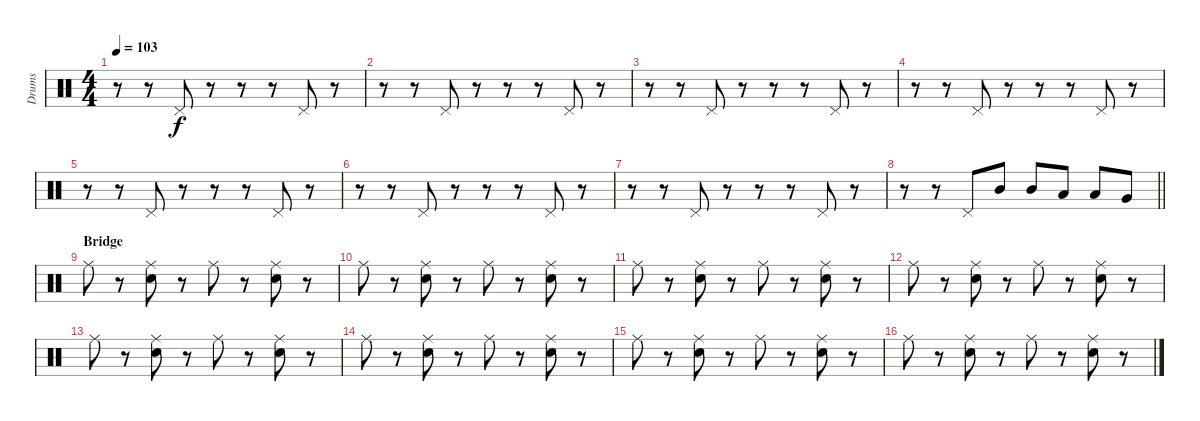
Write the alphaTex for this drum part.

\track ("Drums" "Drums") {instrument percussion}
\staff {score}
\articulation defaults
\ts (4 4)
\tempo 103
\clef neutral
\ks c
r.8{dy f} r.8 "Pedal Hi-Hat (hit)".8 r.8 r.8 r.8 "Pedal Hi-Hat (hit)".8 r.8 |
r.8 r.8 "Pedal Hi-Hat (hit)".8 r.8 r.8 r.8 "Pedal Hi-Hat (hit)".8 r.8 |
r.8 r.8 "Pedal Hi-Hat (hit)".8 r.8 r.8 r.8 "Pedal Hi-Hat (hit)".8 r.8 |
r.8 r.8 "Pedal Hi-Hat (hit)".8 r.8 r.8 r.8 "Pedal Hi-Hat (hit)".8 r.8 |
r.8 r.8 "Pedal Hi-Hat (hit)".8 r.8 r.8 r.8 "Pedal Hi-Hat (hit)".8 r.8 |
r.8 r.8 "Pedal Hi-Hat (hit)".8 r.8 r.8 r.8 "Pedal Hi-Hat (hit)".8 r.8 |
r.8 r.8 "Pedal Hi-Hat (hit)".8 r.8 r.8 r.8 "Pedal Hi-Hat (hit)".8 r.8 |
\barLineRight lightlight
r.8 r.8 "Pedal Hi-Hat (hit)".8 "Mid Tom (hit)".8 "Mid Tom (hit)".8 "Low Tom (hit)".8 "Low Tom (hit)".8 "Very Low Tom (hit)".8 |
\section ("" "Bridge")
"Ride (middle)".8 r.8 ("Ride (middle)" "Snare (hit) 2").8 r.8 "Ride (middle)".8 r.8 ("Ride (middle)" "Snare (hit) 2").8 r.8 |
"Ride (middle)".8 r.8 ("Ride (middle)" "Snare (hit) 2").8 r.8 "Ride (middle)".8 r.8 ("Ride (middle)" "Snare (hit) 2").8 r.8 |
"Ride (middle)".8 r.8 ("Ride (middle)" "Snare (hit) 2").8 r.8 "Ride (middle)".8 r.8 ("Ride (middle)" "Snare (hit) 2").8 r.8 |
"Ride (middle)".8 r.8 ("Ride (middle)" "Snare (hit) 2").8 r.8 "Ride (middle)".8 r.8 ("Ride (middle)" "Snare (hit) 2").8 r.8 |
"Ride (middle)".8 r.8 ("Ride (middle)" "Snare (hit) 2").8 r.8 "Ride (middle)".8 r.8 ("Ride (middle)" "Snare (hit) 2").8 r.8 |
"Ride (middle)".8 r.8 ("Ride (middle)" "Snare (hit) 2").8 r.8 "Ride (middle)".8 r.8 ("Ride (middle)" "Snare (hit) 2").8 r.8 |
"Ride (middle)".8 r.8 ("Ride (middle)" "Snare (hit) 2").8 r.8 "Ride (middle)".8 r.8 ("Ride (middle)" "Snare (hit) 2").8 r.8 |
"Ride (middle)".8 r.8 ("Ride (middle)" "Snare (hit) 2").8 r.8 "Ride (middle)".8 r.8 ("Ride (middle)" "Snare (hit) 2").8 r.8
